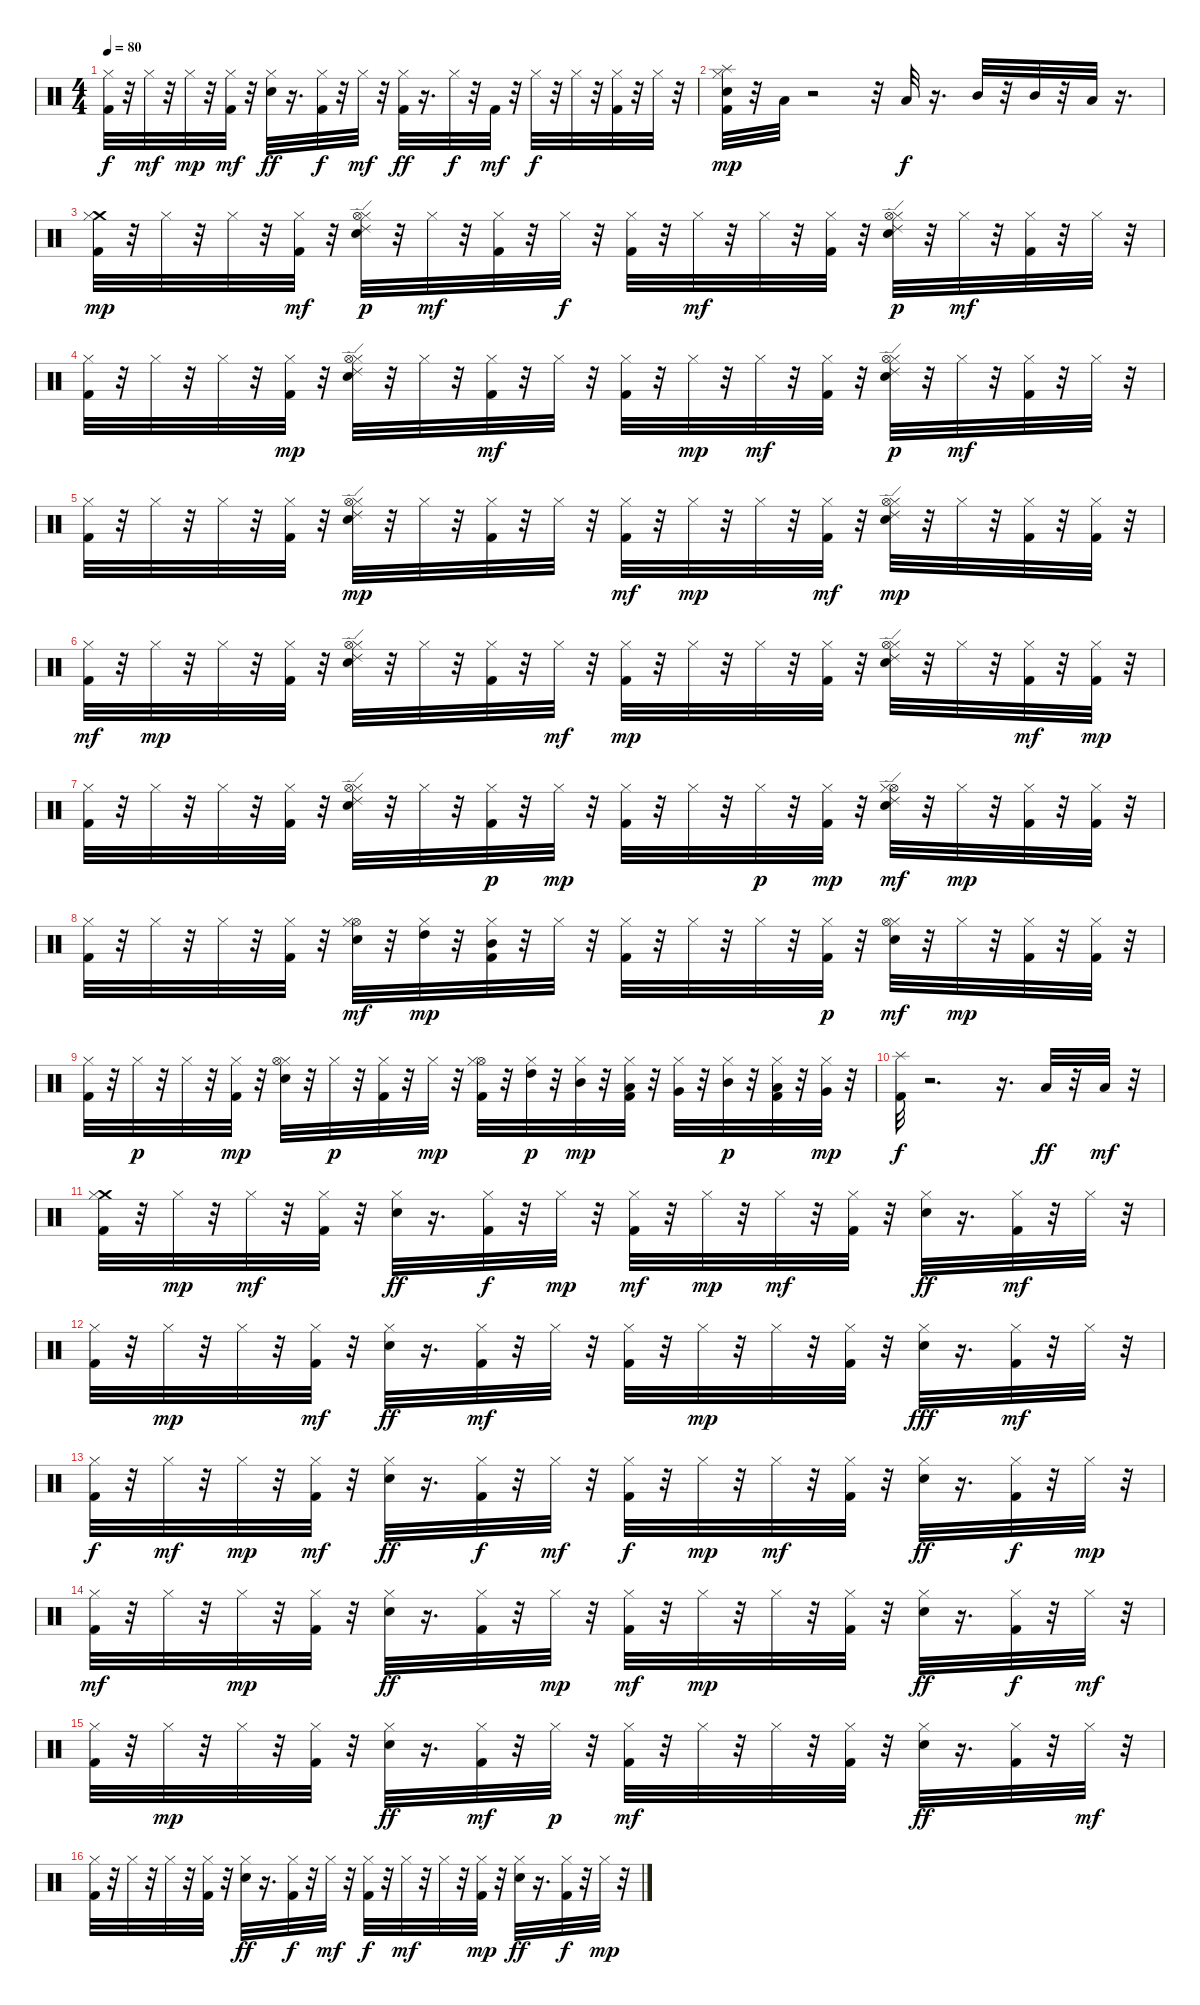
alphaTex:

\track "" {instrument percussion}
\staff {score}
\articulation defaults
\ts (4 4)
\tempo 80
\clef neutral
\ks c
("Kick (hit) 2" "Hi-Hat (closed)").32{dy f} r.32 "Hi-Hat (closed)".32{dy mf} r.32 "Hi-Hat (closed)".32{dy mp} r.32 ("Kick (hit) 2" "Hi-Hat (closed)").32{dy mf} r.32 ("Hi-Hat (closed)" "Snare (hit) 2").32{dy ff} r.16{d} ("Kick (hit) 2" "Hi-Hat (closed)").32{dy f} r.32 "Hi-Hat (closed)".32{dy mf} r.32 ("Kick (hit) 2" "Hi-Hat (closed)").32{dy ff} r.16{d} "Hi-Hat (closed)".32{dy f} r.32 "Kick (hit) 2".32{dy mf} r.32 "Hi-Hat (closed)".32{dy f} r.32 "Hi-Hat (closed)".32 r.32 ("Kick (hit) 2" "Hi-Hat (closed)").32 r.32 "Hi-Hat (closed)".32 r.32 |
("Kick (hit) 2" "Splash (hit)" "Hi-Hat (closed)" "Snare (hit) 2").32{dy mp} r.32 "Low Floor Tom (hit)".32 r.2 r.32 "Low Tom (hit)".32{dy f} r.16{d} "Mid Tom (hit)".32 r.32 "Mid Tom (hit)".32 r.32 "Low Tom (hit)".32 r.16{d} |
("Kick (hit) 2" "Crash medium (hit)" "Hi-Hat (closed)").32{dy mp} r.32 "Hi-Hat (closed)".32 r.32 "Hi-Hat (closed)".32 r.32 ("Kick (hit) 2" "Hi-Hat (closed)").32{dy mf} r.32 ("Snare (hit) 2" "Ride (edge) 2" "Hi-Hat (closed)" "Hi-Hat (open)").32{dy p} r.32 "Hi-Hat (closed)".32{dy mf} r.32 ("Kick (hit) 2" "Hi-Hat (closed)").32 r.32 "Hi-Hat (closed)".32{dy f} r.32 ("Kick (hit) 2" "Hi-Hat (closed)").32 r.32 "Hi-Hat (closed)".32{dy mf} r.32 "Hi-Hat (closed)".32 r.32 ("Kick (hit) 2" "Hi-Hat (closed)").32 r.32 ("Snare (hit) 2" "Ride (edge) 2" "Hi-Hat (closed)" "Hi-Hat (open)").32{dy p} r.32 "Hi-Hat (closed)".32{dy mf} r.32 ("Kick (hit) 2" "Hi-Hat (closed)").32 r.32 "Hi-Hat (closed)".32 r.32 |
("Kick (hit) 2" "Hi-Hat (closed)").32 r.32 "Hi-Hat (closed)".32 r.32 "Hi-Hat (closed)".32 r.32 ("Kick (hit) 2" "Hi-Hat (closed)").32{dy mp} r.32 ("Snare (hit) 2" "Ride (edge) 2" "Hi-Hat (closed)" "Hi-Hat (open)").32 r.32 "Hi-Hat (closed)".32 r.32 ("Kick (hit) 2" "Hi-Hat (closed)").32{dy mf} r.32 "Hi-Hat (closed)".32 r.32 ("Kick (hit) 2" "Hi-Hat (closed)").32 r.32 "Hi-Hat (closed)".32{dy mp} r.32 "Hi-Hat (closed)".32{dy mf} r.32 ("Kick (hit) 2" "Hi-Hat (closed)").32 r.32 ("Snare (hit) 2" "Ride (edge) 2" "Hi-Hat (closed)" "Hi-Hat (open)").32{dy p} r.32 "Hi-Hat (closed)".32{dy mf} r.32 ("Kick (hit) 2" "Hi-Hat (closed)").32 r.32 "Hi-Hat (closed)".32 r.32 |
("Kick (hit) 2" "Hi-Hat (closed)").32 r.32 "Hi-Hat (closed)".32 r.32 "Hi-Hat (closed)".32 r.32 ("Kick (hit) 2" "Hi-Hat (closed)").32 r.32 ("Snare (hit) 2" "Ride (edge) 2" "Hi-Hat (closed)" "Hi-Hat (open)").32{dy mp} r.32 "Hi-Hat (closed)".32 r.32 ("Kick (hit) 2" "Hi-Hat (closed)").32 r.32 "Hi-Hat (closed)".32 r.32 ("Kick (hit) 2" "Hi-Hat (closed)").32{dy mf} r.32 "Hi-Hat (closed)".32{dy mp} r.32 "Hi-Hat (closed)".32 r.32 ("Kick (hit) 2" "Hi-Hat (closed)").32{dy mf} r.32 ("Snare (hit) 2" "Ride (edge) 2" "Hi-Hat (closed)" "Hi-Hat (open)").32{dy mp} r.32 "Hi-Hat (closed)".32 r.32 ("Kick (hit) 2" "Hi-Hat (closed)").32 r.32 ("Kick (hit) 2" "Hi-Hat (closed)").32 r.32 |
("Kick (hit) 2" "Hi-Hat (closed)").32{dy mf} r.32 "Hi-Hat (closed)".32{dy mp} r.32 "Hi-Hat (closed)".32 r.32 ("Kick (hit) 2" "Hi-Hat (closed)").32 r.32 ("Snare (hit) 2" "Ride (edge) 2" "Hi-Hat (closed)" "Hi-Hat (open)").32 r.32 "Hi-Hat (closed)".32 r.32 ("Kick (hit) 2" "Hi-Hat (closed)").32 r.32 "Hi-Hat (closed)".32{dy mf} r.32 ("Kick (hit) 2" "Hi-Hat (closed)").32{dy mp} r.32 "Hi-Hat (closed)".32 r.32 "Hi-Hat (closed)".32 r.32 ("Kick (hit) 2" "Hi-Hat (closed)").32 r.32 ("Snare (hit) 2" "Ride (edge) 2" "Hi-Hat (closed)" "Hi-Hat (open)").32 r.32 "Hi-Hat (closed)".32 r.32 ("Kick (hit) 2" "Hi-Hat (closed)").32{dy mf} r.32 ("Kick (hit) 2" "Hi-Hat (closed)").32{dy mp} r.32 |
("Kick (hit) 2" "Hi-Hat (closed)").32 r.32 "Hi-Hat (closed)".32 r.32 "Hi-Hat (closed)".32 r.32 ("Kick (hit) 2" "Hi-Hat (closed)").32 r.32 ("Snare (hit) 2" "Ride (edge) 2" "Hi-Hat (closed)" "Hi-Hat (open)").32 r.32 "Hi-Hat (closed)".32 r.32 ("Kick (hit) 2" "Hi-Hat (closed)").32{dy p} r.32 "Hi-Hat (closed)".32{dy mp} r.32 ("Kick (hit) 2" "Hi-Hat (closed)").32 r.32 "Hi-Hat (closed)".32 r.32 "Hi-Hat (closed)".32{dy p} r.32 ("Kick (hit) 2" "Hi-Hat (closed)").32{dy mp} r.32 ("Snare (hit) 2" "Ride (edge) 2" "Hi-Hat (open)" "Hi-Hat (closed)").32{dy mf} r.32 "Hi-Hat (closed)".32{dy mp} r.32 ("Kick (hit) 2" "Hi-Hat (closed)").32 r.32 ("Kick (hit) 2" "Hi-Hat (closed)").32 r.32 |
("Kick (hit) 2" "Hi-Hat (closed)").32 r.32 "Hi-Hat (closed)".32 r.32 "Hi-Hat (closed)".32 r.32 ("Kick (hit) 2" "Hi-Hat (closed)").32 r.32 ("Snare (hit) 2" "Hi-Hat (open)" "Hi-Hat (closed)").32{dy mf} r.32 ("High Tom (hit)" "Hi-Hat (closed)").32{dy mp} r.32 ("Kick (hit) 2" "Hi-Hat (closed)" "Mid Tom (hit)").32 r.32 "Hi-Hat (closed)".32 r.32 ("Kick (hit) 2" "Hi-Hat (closed)").32 r.32 "Hi-Hat (closed)".32 r.32 "Hi-Hat (closed)".32 r.32 ("Kick (hit) 2" "Hi-Hat (closed)").32{dy p} r.32 ("Snare (hit) 2" "Hi-Hat (closed)" "Hi-Hat (open)").32{dy mf} r.32 "Hi-Hat (closed)".32{dy mp} r.32 ("Kick (hit) 2" "Hi-Hat (closed)").32 r.32 ("Kick (hit) 2" "Hi-Hat (closed)").32 r.32 |
("Kick (hit) 2" "Hi-Hat (closed)").32 r.32 "Hi-Hat (closed)".32{dy p} r.32 "Hi-Hat (closed)".32 r.32 ("Kick (hit) 2" "Hi-Hat (closed)").32{dy mp} r.32 ("Snare (hit) 2" "Hi-Hat (closed)" "Hi-Hat (open)").32 r.32 "Hi-Hat (closed)".32{dy p} r.32 ("Kick (hit) 2" "Hi-Hat (closed)").32 r.32 "Hi-Hat (closed)".32{dy mp} r.32 ("Kick (hit) 2" "Hi-Hat (open)" "Hi-Hat (closed)").32 r.32 ("High Tom (hit)" "Hi-Hat (closed)").32{dy p} r.32 ("Mid Tom (hit)" "Hi-Hat (closed)").32{dy mp} r.32 ("Kick (hit) 2" "Low Tom (hit)" "Hi-Hat (closed)").32 r.32 ("Very Low Tom (hit)" "Hi-Hat (closed)").32 r.32 ("Mid Tom (hit)" "Hi-Hat (closed)").32{dy p} r.32 ("Kick (hit) 2" "Low Tom (hit)" "Hi-Hat (closed)").32 r.32 ("Very Low Tom (hit)" "Hi-Hat (closed)").32{dy mp} r.32 |
("Kick (hit) 2" "Splash (hit)").32{dy f} r.2{d} r.16{d} "Low Tom (hit)".32{dy ff} r.32 "Low Tom (hit)".32{dy mf} r.32 |
("Kick (hit) 2" "Crash medium (hit)" "Hi-Hat (closed)").32 r.32 "Hi-Hat (closed)".32{dy mp} r.32 "Hi-Hat (closed)".32{dy mf} r.32 ("Kick (hit) 2" "Hi-Hat (closed)").32 r.32 ("Hi-Hat (closed)" "Snare (hit) 2").32{dy ff} r.16{d} ("Kick (hit) 2" "Hi-Hat (closed)").32{dy f} r.32 "Hi-Hat (closed)".32{dy mp} r.32 ("Kick (hit) 2" "Hi-Hat (closed)").32{dy mf} r.32 "Hi-Hat (closed)".32{dy mp} r.32 "Hi-Hat (closed)".32{dy mf} r.32 ("Kick (hit) 2" "Hi-Hat (closed)").32 r.32 ("Hi-Hat (closed)" "Snare (hit) 2").32{dy ff} r.16{d} ("Kick (hit) 2" "Hi-Hat (closed)").32{dy mf} r.32 "Hi-Hat (closed)".32 r.32 |
("Kick (hit) 2" "Hi-Hat (closed)").32 r.32 "Hi-Hat (closed)".32{dy mp} r.32 "Hi-Hat (closed)".32 r.32 ("Kick (hit) 2" "Hi-Hat (closed)").32{dy mf} r.32 ("Hi-Hat (closed)" "Snare (hit) 2").32{dy ff} r.16{d} ("Kick (hit) 2" "Hi-Hat (closed)").32{dy mf} r.32 "Hi-Hat (closed)".32 r.32 ("Kick (hit) 2" "Hi-Hat (closed)").32 r.32 "Hi-Hat (closed)".32{dy mp} r.32 "Hi-Hat (closed)".32 r.32 ("Kick (hit) 2" "Hi-Hat (closed)").32 r.32 ("Hi-Hat (closed)" "Snare (hit) 2").32{dy fff} r.16{d} ("Kick (hit) 2" "Hi-Hat (closed)").32{dy mf} r.32 "Hi-Hat (closed)".32 r.32 |
("Kick (hit) 2" "Hi-Hat (closed)").32{dy f} r.32 "Hi-Hat (closed)".32{dy mf} r.32 "Hi-Hat (closed)".32{dy mp} r.32 ("Kick (hit) 2" "Hi-Hat (closed)").32{dy mf} r.32 ("Hi-Hat (closed)" "Snare (hit) 2").32{dy ff} r.16{d} ("Kick (hit) 2" "Hi-Hat (closed)").32{dy f} r.32 "Hi-Hat (closed)".32{dy mf} r.32 ("Kick (hit) 2" "Hi-Hat (closed)").32{dy f} r.32 "Hi-Hat (closed)".32{dy mp} r.32 "Hi-Hat (closed)".32{dy mf} r.32 ("Kick (hit) 2" "Hi-Hat (closed)").32 r.32 ("Hi-Hat (closed)" "Snare (hit) 2").32{dy ff} r.16{d} ("Kick (hit) 2" "Hi-Hat (closed)").32{dy f} r.32 "Hi-Hat (closed)".32{dy mp} r.32 |
("Kick (hit) 2" "Hi-Hat (closed)").32{dy mf} r.32 "Hi-Hat (closed)".32 r.32 "Hi-Hat (closed)".32{dy mp} r.32 ("Kick (hit) 2" "Hi-Hat (closed)").32 r.32 ("Hi-Hat (closed)" "Snare (hit) 2").32{dy ff} r.16{d} ("Kick (hit) 2" "Hi-Hat (closed)").32 r.32 "Hi-Hat (closed)".32{dy mp} r.32 ("Kick (hit) 2" "Hi-Hat (closed)").32{dy mf} r.32 "Hi-Hat (closed)".32{dy mp} r.32 "Hi-Hat (closed)".32 r.32 ("Kick (hit) 2" "Hi-Hat (closed)").32 r.32 ("Hi-Hat (closed)" "Snare (hit) 2").32{dy ff} r.16{d} ("Kick (hit) 2" "Hi-Hat (closed)").32{dy f} r.32 "Hi-Hat (closed)".32{dy mf} r.32 |
("Kick (hit) 2" "Hi-Hat (closed)").32 r.32 "Hi-Hat (closed)".32{dy mp} r.32 "Hi-Hat (closed)".32 r.32 ("Kick (hit) 2" "Hi-Hat (closed)").32 r.32 ("Hi-Hat (closed)" "Snare (hit) 2").32{dy ff} r.16{d} ("Kick (hit) 2" "Hi-Hat (closed)").32{dy mf} r.32 "Hi-Hat (closed)".32{dy p} r.32 ("Kick (hit) 2" "Hi-Hat (closed)").32{dy mf} r.32 "Hi-Hat (closed)".32 r.32 "Hi-Hat (closed)".32 r.32 ("Kick (hit) 2" "Hi-Hat (closed)").32 r.32 ("Hi-Hat (closed)" "Snare (hit) 2").32{dy ff} r.16{d} ("Kick (hit) 2" "Hi-Hat (closed)").32 r.32 "Hi-Hat (closed)".32{dy mf} r.32 |
("Kick (hit) 2" "Hi-Hat (closed)").32 r.32 "Hi-Hat (closed)".32 r.32 "Hi-Hat (closed)".32 r.32 ("Kick (hit) 2" "Hi-Hat (closed)").32 r.32 ("Hi-Hat (closed)" "Snare (hit) 2").32{dy ff} r.16{d} ("Kick (hit) 2" "Hi-Hat (closed)").32{dy f} r.32 "Hi-Hat (closed)".32{dy mf} r.32 ("Kick (hit) 2" "Hi-Hat (closed)").32{dy f} r.32 "Hi-Hat (closed)".32{dy mf} r.32 "Hi-Hat (closed)".32 r.32 ("Kick (hit) 2" "Hi-Hat (closed)").32{dy mp} r.32 ("Hi-Hat (closed)" "Snare (hit) 2").32{dy ff} r.16{d} ("Kick (hit) 2" "Hi-Hat (closed)").32{dy f} r.32 "Hi-Hat (closed)".32{dy mp} r.32
